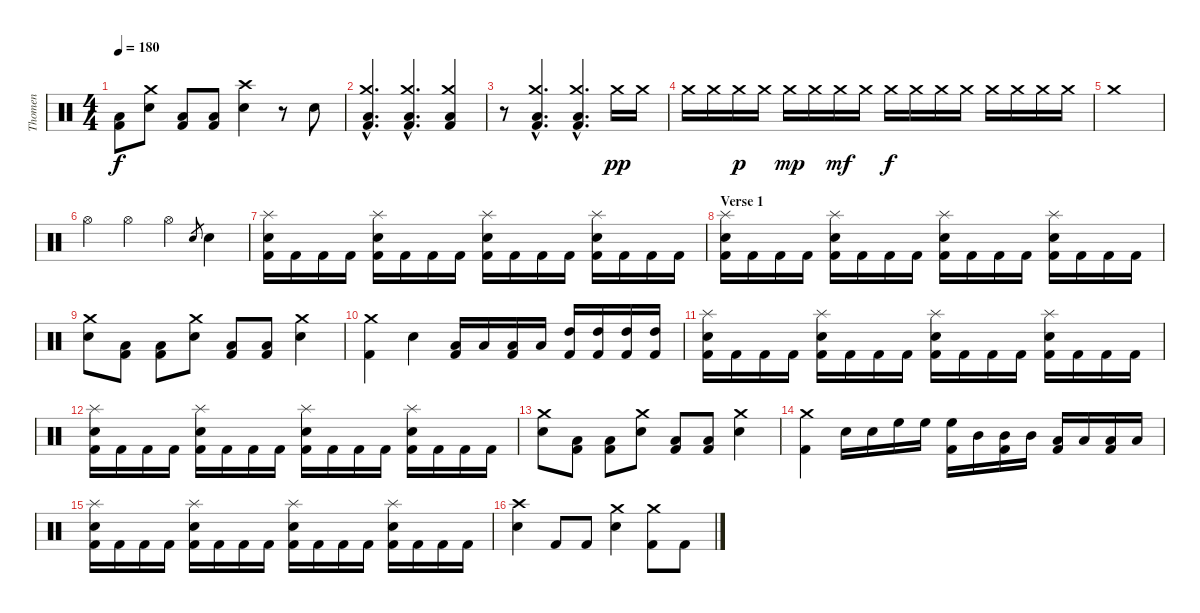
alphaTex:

\track ("Thomen" "Thomen") {instrument percussion}
\staff {score}
\articulation defaults
\ts (4 4)
\tempo 180
\clef neutral
\ks c
("Kick (hit) 2" "Low Tom (hit)").8{dy f} ("Electric Snare (hit)" "Crash medium (hit)").8 ("Kick (hit) 2" "Low Tom (hit)").8 ("Kick (hit) 2" "Low Tom (hit)").8 ("Electric Snare (hit)" "Crash high (hit)").4 r.8 "Electric Snare (hit)".8 |
("Kick (hit) 2"{hac} "Low Floor Tom (hit)"{hac} "Crash medium (hit)"{hac}).4{d} ("Kick (hit) 2"{hac} "Low Floor Tom (hit)"{hac} "Crash medium (hit)"{hac}).4{d} ("Kick (hit) 2" "Low Floor Tom (hit)" "Crash medium (hit)").4 |
r.8 ("Kick (hit) 2"{hac} "Low Floor Tom (hit)"{hac} "Crash medium (hit)"{hac}).4{d} ("Kick (hit) 2"{hac} "Low Floor Tom (hit)"{hac} "Crash medium (hit)"{hac}).4{d} "Crash medium (hit)".16{dy pp} "Crash medium (hit)".16 |
"Crash medium (hit)".16 "Crash medium (hit)".16 "Crash medium (hit)".16{dy p} "Crash medium (hit)".16 "Crash medium (hit)".16{dy mp} "Crash medium (hit)".16 "Crash medium (hit)".16{dy mf} "Crash medium (hit)".16 "Crash medium (hit)".16{dy f} "Crash medium (hit)".16 "Crash medium (hit)".16 "Crash medium (hit)".16 "Crash medium (hit)".16 "Crash medium (hit)".16 "Crash medium (hit)".16 "Crash medium (hit)".16 |
"Crash medium (hit)".1 |
"Hi-Hat (open)".4 "Hi-Hat (open)".4 "Hi-Hat (open)".4 "Electric Snare (hit)".8{gr} "Electric Snare (hit)".4 |
("Kick (hit) 2" "Electric Snare (hit)" "Splash (hit)").16 "Kick (hit) 2".16 "Kick (hit) 2".16 "Kick (hit) 2".16 ("Kick (hit) 2" "Electric Snare (hit)" "Splash (hit)").16 "Kick (hit) 2".16 "Kick (hit) 2".16 "Kick (hit) 2".16 ("Kick (hit) 2" "Electric Snare (hit)" "Splash (hit)").16 "Kick (hit) 2".16 "Kick (hit) 2".16 "Kick (hit) 2".16 ("Kick (hit) 2" "Electric Snare (hit)" "Splash (hit)").16 "Kick (hit) 2".16 "Kick (hit) 2".16 "Kick (hit) 2".16 |
\section ("" "Verse 1")
("Kick (hit) 2" "Electric Snare (hit)" "Splash (hit)").16 "Kick (hit) 2".16 "Kick (hit) 2".16 "Kick (hit) 2".16 ("Kick (hit) 2" "Electric Snare (hit)" "Splash (hit)").16 "Kick (hit) 2".16 "Kick (hit) 2".16 "Kick (hit) 2".16 ("Kick (hit) 2" "Electric Snare (hit)" "Splash (hit)").16 "Kick (hit) 2".16 "Kick (hit) 2".16 "Kick (hit) 2".16 ("Kick (hit) 2" "Electric Snare (hit)" "Splash (hit)").16 "Kick (hit) 2".16 "Kick (hit) 2".16 "Kick (hit) 2".16 |
("Electric Snare (hit)" "Crash medium (hit)").8 ("Kick (hit) 2" "Low Tom (hit)").8 ("Kick (hit) 2" "Low Tom (hit)").8 ("Electric Snare (hit)" "Crash medium (hit)").8 ("Kick (hit) 2" "Low Tom (hit)").8 ("Kick (hit) 2" "Low Tom (hit)").8 ("Electric Snare (hit)" "Crash medium (hit)").4 |
("Kick (hit) 2" "Crash medium (hit)").4 "Electric Snare (hit)".4 ("Kick (hit) 2" "Low Tom (hit)").16 "Low Tom (hit)".16 ("Kick (hit) 2" "Low Tom (hit)").16 "Low Tom (hit)".16 ("Kick (hit) 2" "High Tom (hit)").16 ("Kick (hit) 2" "High Tom (hit)").16 ("Kick (hit) 2" "High Tom (hit)").16 ("Kick (hit) 2" "High Tom (hit)").16 |
("Kick (hit) 2" "Electric Snare (hit)" "Splash (hit)").16 "Kick (hit) 2".16 "Kick (hit) 2".16 "Kick (hit) 2".16 ("Kick (hit) 2" "Electric Snare (hit)" "Splash (hit)").16 "Kick (hit) 2".16 "Kick (hit) 2".16 "Kick (hit) 2".16 ("Kick (hit) 2" "Electric Snare (hit)" "Splash (hit)").16 "Kick (hit) 2".16 "Kick (hit) 2".16 "Kick (hit) 2".16 ("Kick (hit) 2" "Electric Snare (hit)" "Splash (hit)").16 "Kick (hit) 2".16 "Kick (hit) 2".16 "Kick (hit) 2".16 |
("Kick (hit) 2" "Electric Snare (hit)" "Splash (hit)").16 "Kick (hit) 2".16 "Kick (hit) 2".16 "Kick (hit) 2".16 ("Kick (hit) 2" "Electric Snare (hit)" "Splash (hit)").16 "Kick (hit) 2".16 "Kick (hit) 2".16 "Kick (hit) 2".16 ("Kick (hit) 2" "Electric Snare (hit)" "Splash (hit)").16 "Kick (hit) 2".16 "Kick (hit) 2".16 "Kick (hit) 2".16 ("Kick (hit) 2" "Electric Snare (hit)" "Splash (hit)").16 "Kick (hit) 2".16 "Kick (hit) 2".16 "Kick (hit) 2".16 |
("Electric Snare (hit)" "Crash medium (hit)").8 ("Kick (hit) 2" "Low Tom (hit)").8 ("Kick (hit) 2" "Low Tom (hit)").8 ("Electric Snare (hit)" "Crash medium (hit)").8 ("Kick (hit) 2" "Low Tom (hit)").8 ("Kick (hit) 2" "Low Tom (hit)").8 ("Electric Snare (hit)" "Crash medium (hit)").4 |
("Kick (hit) 2" "Crash medium (hit)").4 "Electric Snare (hit)".16 "Electric Snare (hit)".16 "High Floor Tom (hit)".16 "High Floor Tom (hit)".16 ("Kick (hit) 2" "High Floor Tom (hit)").16 "Mid Tom (hit)".16 ("Kick (hit) 2" "Mid Tom (hit)").16 "Mid Tom (hit)".16 ("Kick (hit) 2" "Low Tom (hit)").16 "Low Tom (hit)".16 ("Kick (hit) 2" "Low Tom (hit)").16 "Low Tom (hit)".16 |
("Kick (hit) 2" "Electric Snare (hit)" "Splash (hit)").16 "Kick (hit) 2".16 "Kick (hit) 2".16 "Kick (hit) 2".16 ("Kick (hit) 2" "Electric Snare (hit)" "Splash (hit)").16 "Kick (hit) 2".16 "Kick (hit) 2".16 "Kick (hit) 2".16 ("Kick (hit) 2" "Electric Snare (hit)" "Splash (hit)").16 "Kick (hit) 2".16 "Kick (hit) 2".16 "Kick (hit) 2".16 ("Kick (hit) 2" "Electric Snare (hit)" "Splash (hit)").16 "Kick (hit) 2".16 "Kick (hit) 2".16 "Kick (hit) 2".16 |
("Electric Snare (hit)" "Crash high (hit)").4 "Kick (hit) 2".8 "Kick (hit) 2".8 ("Electric Snare (hit)" "Crash medium (hit)").4 ("Kick (hit) 2" "Crash medium (hit)").8 "Kick (hit) 2".8
